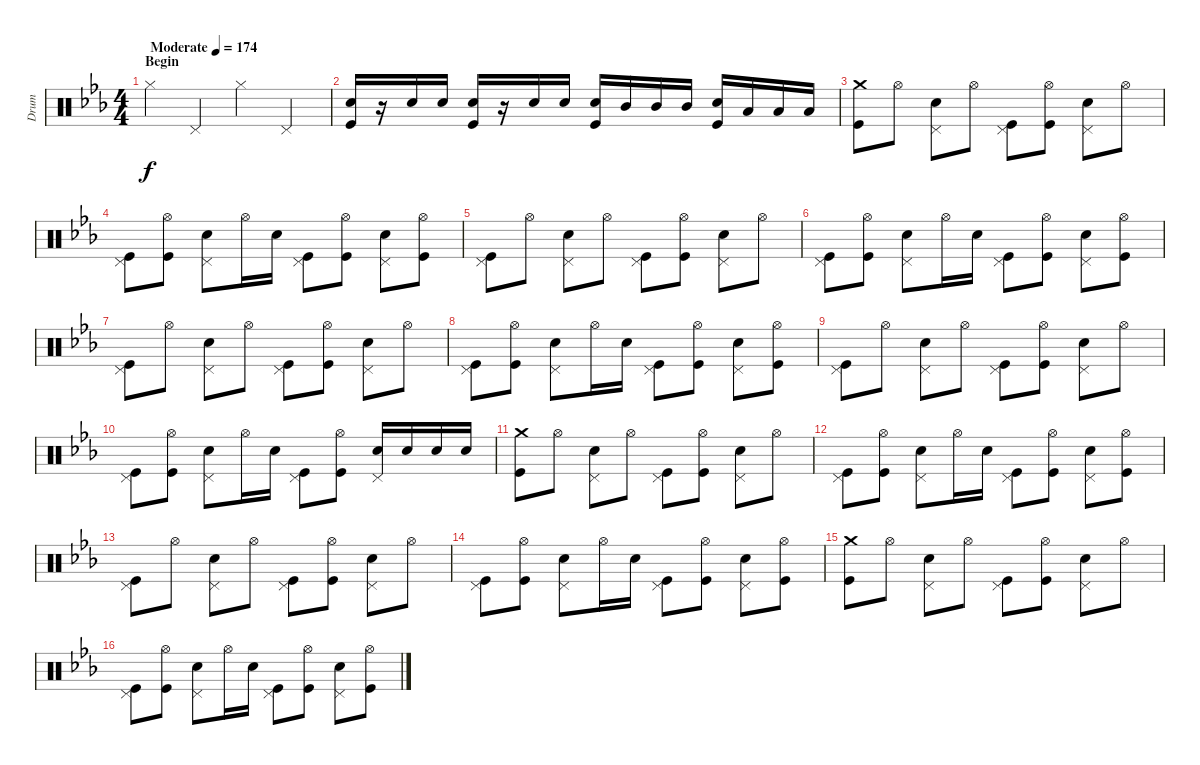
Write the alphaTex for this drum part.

\track ("Drum" "Drum") {instrument percussion}
\staff {score}
\articulation defaults
\ts (4 4)
\section ("" "Begin")
\tempo (174 "Moderate")
\clef neutral
\ks eb "Hi-Hat (closed)".4{dy f} "Pedal Hi-Hat (hit)".4 "Hi-Hat (closed)".4 "Pedal Hi-Hat (hit)".4
|
("Snare (hit) 2" "Kick (hit)").16 r.16 "Snare (hit) 2".16 "Snare (hit) 2".16 ("Snare (hit) 2" "Kick (hit)").16 r.16 "Snare (hit) 2".16 "Snare (hit) 2".16 ("Snare (hit) 2" "Kick (hit)").16 "Mid Tom (hit)".16 "Mid Tom (hit)".16 "Mid Tom (hit)".16 ("Snare (hit) 2" "Kick (hit)").16 "Low Tom (hit)".16 "Low Tom (hit)".16 "Low Tom (hit)".16 |
("Crash medium (hit)" "Kick (hit)").8 "Hi-Hat (open)".8 ("Pedal Hi-Hat (hit)" "Snare (hit) 2").8 "Hi-Hat (open)".8 ("Pedal Hi-Hat (hit)" "Kick (hit)").8 ("Hi-Hat (open)" "Kick (hit)").8 ("Pedal Hi-Hat (hit)" "Snare (hit) 2").8 "Hi-Hat (open)".8 |
("Pedal Hi-Hat (hit)" "Kick (hit)").8 ("Hi-Hat (open)" "Kick (hit)").8 ("Pedal Hi-Hat (hit)" "Snare (hit) 2").8 "Hi-Hat (open)".16 "Snare (hit) 2".16 ("Pedal Hi-Hat (hit)" "Kick (hit)").8 ("Hi-Hat (open)" "Kick (hit)").8 ("Pedal Hi-Hat (hit)" "Snare (hit) 2").8 ("Hi-Hat (open)" "Kick (hit)").8 |
("Pedal Hi-Hat (hit)" "Kick (hit)").8 "Hi-Hat (open)".8 ("Pedal Hi-Hat (hit)" "Snare (hit) 2").8 "Hi-Hat (open)".8 ("Pedal Hi-Hat (hit)" "Kick (hit)").8 ("Hi-Hat (open)" "Kick (hit)").8 ("Pedal Hi-Hat (hit)" "Snare (hit) 2").8 "Hi-Hat (open)".8 |
("Pedal Hi-Hat (hit)" "Kick (hit)").8 ("Hi-Hat (open)" "Kick (hit)").8 ("Pedal Hi-Hat (hit)" "Snare (hit) 2").8 "Hi-Hat (open)".16 "Snare (hit) 2".16 ("Pedal Hi-Hat (hit)" "Kick (hit)").8 ("Hi-Hat (open)" "Kick (hit)").8 ("Pedal Hi-Hat (hit)" "Snare (hit) 2").8 ("Hi-Hat (open)" "Kick (hit)").8 |
("Pedal Hi-Hat (hit)" "Kick (hit)").8 "Hi-Hat (open)".8 ("Pedal Hi-Hat (hit)" "Snare (hit) 2").8 "Hi-Hat (open)".8 ("Pedal Hi-Hat (hit)" "Kick (hit)").8 ("Hi-Hat (open)" "Kick (hit)").8 ("Pedal Hi-Hat (hit)" "Snare (hit) 2").8 "Hi-Hat (open)".8 |
("Pedal Hi-Hat (hit)" "Kick (hit)").8 ("Hi-Hat (open)" "Kick (hit)").8 ("Pedal Hi-Hat (hit)" "Snare (hit) 2").8 "Hi-Hat (open)".16 "Snare (hit) 2".16 ("Pedal Hi-Hat (hit)" "Kick (hit)").8 ("Hi-Hat (open)" "Kick (hit)").8 ("Pedal Hi-Hat (hit)" "Snare (hit) 2").8 ("Hi-Hat (open)" "Kick (hit)").8 |
("Pedal Hi-Hat (hit)" "Kick (hit)").8 "Hi-Hat (open)".8 ("Pedal Hi-Hat (hit)" "Snare (hit) 2").8 "Hi-Hat (open)".8 ("Pedal Hi-Hat (hit)" "Kick (hit)").8 ("Hi-Hat (open)" "Kick (hit)").8 ("Pedal Hi-Hat (hit)" "Snare (hit) 2").8 "Hi-Hat (open)".8 |
("Pedal Hi-Hat (hit)" "Kick (hit)").8 ("Hi-Hat (open)" "Kick (hit)").8 ("Pedal Hi-Hat (hit)" "Snare (hit) 2").8 "Hi-Hat (open)".16 "Snare (hit) 2".16 ("Pedal Hi-Hat (hit)" "Kick (hit)").8 ("Hi-Hat (open)" "Kick (hit)").8 ("Pedal Hi-Hat (hit)" "Snare (hit) 2").16 "Snare (hit) 2".16 "Snare (hit) 2".16 "Snare (hit) 2".16 |
("Crash medium (hit)" "Kick (hit)").8 "Hi-Hat (open)".8 ("Pedal Hi-Hat (hit)" "Snare (hit) 2").8 "Hi-Hat (open)".8 ("Pedal Hi-Hat (hit)" "Kick (hit)").8 ("Hi-Hat (open)" "Kick (hit)").8 ("Pedal Hi-Hat (hit)" "Snare (hit) 2").8 "Hi-Hat (open)".8 |
("Pedal Hi-Hat (hit)" "Kick (hit)").8 ("Hi-Hat (open)" "Kick (hit)").8 ("Pedal Hi-Hat (hit)" "Snare (hit) 2").8 "Hi-Hat (open)".16 "Snare (hit) 2".16 ("Pedal Hi-Hat (hit)" "Kick (hit)").8 ("Hi-Hat (open)" "Kick (hit)").8 ("Pedal Hi-Hat (hit)" "Snare (hit) 2").8 ("Hi-Hat (open)" "Kick (hit)").8 |
("Pedal Hi-Hat (hit)" "Kick (hit)").8 "Hi-Hat (open)".8 ("Pedal Hi-Hat (hit)" "Snare (hit) 2").8 "Hi-Hat (open)".8 ("Pedal Hi-Hat (hit)" "Kick (hit)").8 ("Hi-Hat (open)" "Kick (hit)").8 ("Pedal Hi-Hat (hit)" "Snare (hit) 2").8 "Hi-Hat (open)".8 |
("Pedal Hi-Hat (hit)" "Kick (hit)").8 ("Hi-Hat (open)" "Kick (hit)").8 ("Pedal Hi-Hat (hit)" "Snare (hit) 2").8 "Hi-Hat (open)".16 "Snare (hit) 2".16 ("Pedal Hi-Hat (hit)" "Kick (hit)").8 ("Hi-Hat (open)" "Kick (hit)").8 ("Pedal Hi-Hat (hit)" "Snare (hit) 2").8 ("Hi-Hat (open)" "Kick (hit)").8 |
("Crash medium (hit)" "Kick (hit)").8 "Hi-Hat (open)".8 ("Pedal Hi-Hat (hit)" "Snare (hit) 2").8 "Hi-Hat (open)".8 ("Pedal Hi-Hat (hit)" "Kick (hit)").8 ("Hi-Hat (open)" "Kick (hit)").8 ("Pedal Hi-Hat (hit)" "Snare (hit) 2").8 "Hi-Hat (open)".8 |
("Pedal Hi-Hat (hit)" "Kick (hit)").8 ("Hi-Hat (open)" "Kick (hit)").8 ("Pedal Hi-Hat (hit)" "Snare (hit) 2").8 "Hi-Hat (open)".16 "Snare (hit) 2".16 ("Pedal Hi-Hat (hit)" "Kick (hit)").8 ("Hi-Hat (open)" "Kick (hit)").8 ("Pedal Hi-Hat (hit)" "Snare (hit) 2").8 ("Hi-Hat (open)" "Kick (hit)").8
